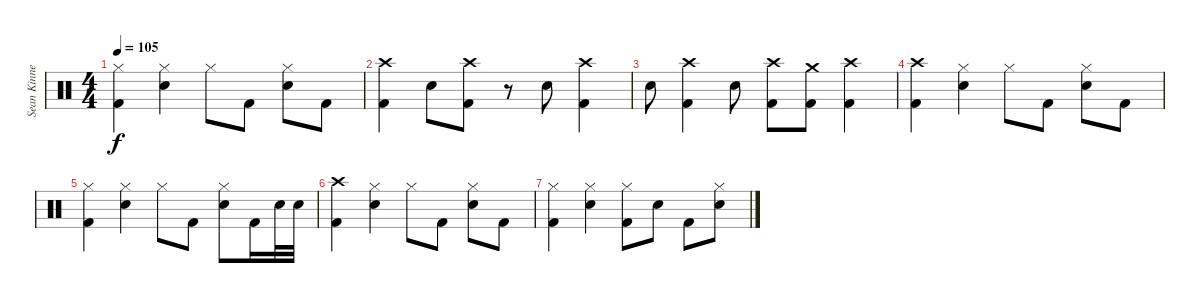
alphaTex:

\track ("Sean Kinney- Drums" "Sean Kinne") {instrument percussion}
\staff {score}
\articulation defaults
\ts (4 4)
\tempo 105
\clef neutral
\ks c
("Hi-Hat (closed)" "Kick (hit) 2").4{dy f} ("Hi-Hat (closed)" "Electric Snare (hit)").4 "Hi-Hat (closed)".8 "Kick (hit) 2".8 ("Hi-Hat (closed)" "Electric Snare (hit)").8 "Kick (hit) 2".8 |
("Crash high (hit)" "Kick (hit) 2").4 "Electric Snare (hit)".8 ("Crash high (hit)" "Kick (hit) 2").8 r.8 "Electric Snare (hit)".8 ("Crash high (hit)" "Kick (hit) 2").4 |
"Electric Snare (hit)".8 ("Crash high (hit)" "Kick (hit) 2").4 "Electric Snare (hit)".8 ("Crash high (hit)" "Kick (hit) 2").8 ("Crash medium (hit)" "Kick (hit) 2").8 ("Crash high (hit)" "Kick (hit) 2").4 |
("Crash high (hit)" "Kick (hit) 2").4 ("Hi-Hat (closed)" "Electric Snare (hit)").4 "Hi-Hat (closed)".8 "Kick (hit) 2".8 ("Hi-Hat (closed)" "Electric Snare (hit)").8 "Kick (hit) 2".8 |
("Hi-Hat (closed)" "Kick (hit) 2").4 ("Hi-Hat (closed)" "Electric Snare (hit)").4 "Hi-Hat (closed)".8 "Kick (hit) 2".8 ("Hi-Hat (closed)" "Electric Snare (hit)").8 "Kick (hit) 2".16 "Electric Snare (hit)".32 "Electric Snare (hit)".32 |
("Crash high (hit)" "Kick (hit) 2").4 ("Hi-Hat (closed)" "Electric Snare (hit)").4 "Hi-Hat (closed)".8 "Kick (hit) 2".8 ("Hi-Hat (closed)" "Electric Snare (hit)").8 "Kick (hit) 2".8 |
("Hi-Hat (closed)" "Kick (hit) 2").4 ("Hi-Hat (closed)" "Electric Snare (hit)").4 ("Hi-Hat (closed)" "Kick (hit) 2").8 "Electric Snare (hit)".8 "Kick (hit) 2".8 ("Hi-Hat (closed)" "Electric Snare (hit)").8
